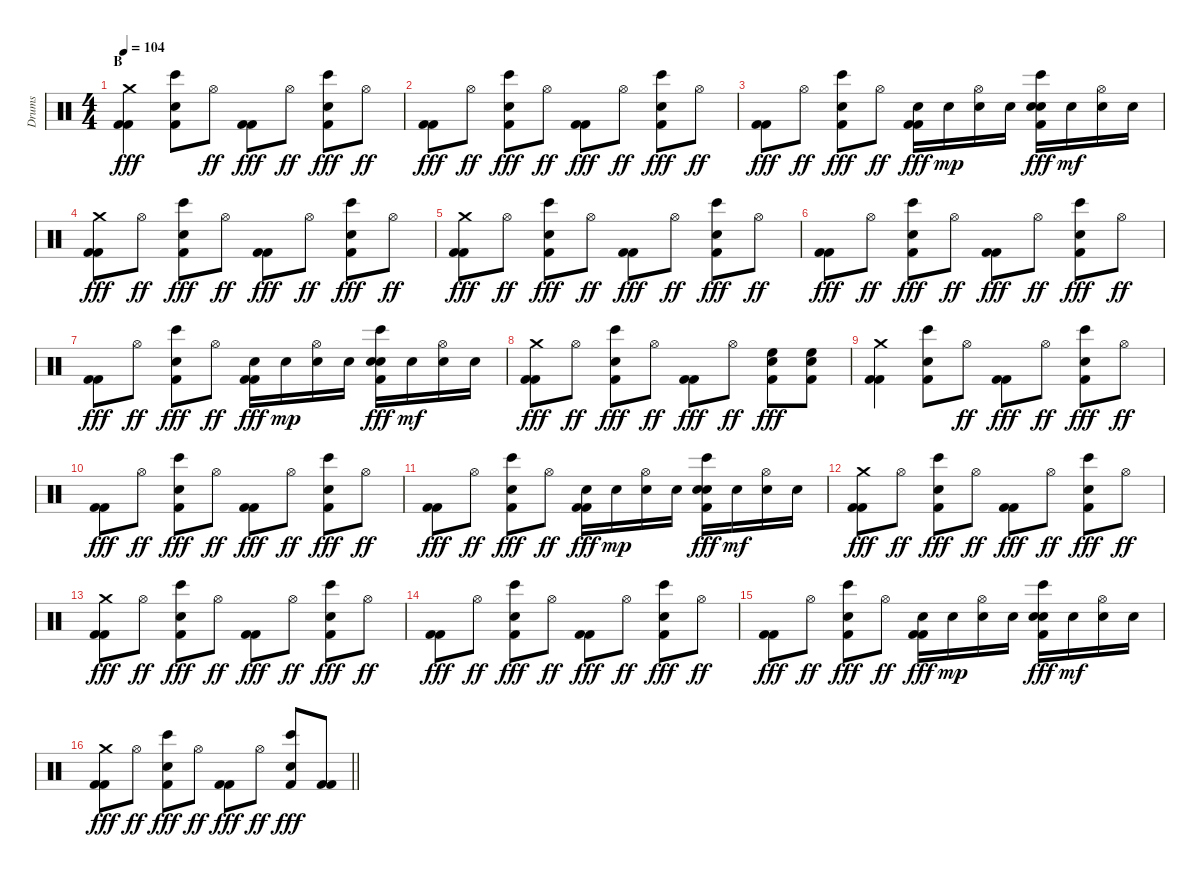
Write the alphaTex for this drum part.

\track ("Drums" "Drums") {instrument percussion}
\staff {score}
\articulation defaults
\ts (4 4)
\section ("" "B")
\tempo 104
\clef neutral
\ks c
("Crash medium (hit)" "Kick (hit) 2" "Kick (hit) 2").4{dy fff} ("Bongo High (hit)" "Snare (hit) 2" "Kick (hit) 2").8 "Hi-Hat (open)".8{dy ff} ("Kick (hit) 2" "Kick (hit) 2").8{dy fff} "Hi-Hat (open)".8{dy ff} ("Bongo High (hit)" "Snare (hit) 2" "Kick (hit) 2").8{dy fff} "Hi-Hat (open)".8{dy ff} |
("Kick (hit) 2" "Kick (hit) 2").8{dy fff} "Hi-Hat (open)".8{dy ff} ("Bongo High (hit)" "Snare (hit) 2" "Kick (hit) 2").8{dy fff} "Hi-Hat (open)".8{dy ff} ("Kick (hit) 2" "Kick (hit) 2").8{dy fff} "Hi-Hat (open)".8{dy ff} ("Bongo High (hit)" "Snare (hit) 2" "Kick (hit) 2").8{dy fff} "Hi-Hat (open)".8{dy ff} |
("Kick (hit) 2" "Kick (hit) 2").8{dy fff} "Hi-Hat (open)".8{dy ff} ("Bongo High (hit)" "Snare (hit) 2" "Kick (hit) 2").8{dy fff} "Hi-Hat (open)".8{dy ff} ("Electric Snare (hit)" "Kick (hit) 2" "Kick (hit) 2").16{dy fff} "Electric Snare (hit)".16{dy mp} ("Hi-Hat (open)" "Electric Snare (hit)").16 "Electric Snare (hit)".16 ("Electric Snare (hit)" "Bongo High (hit)" "Snare (hit) 2" "Kick (hit) 2").16{dy fff} "Electric Snare (hit)".16{dy mf} ("Hi-Hat (open)" "Electric Snare (hit)").16 "Electric Snare (hit)".16 |
("Crash medium (hit)" "Kick (hit) 2" "Kick (hit) 2").8{dy fff} "Hi-Hat (open)".8{dy ff} ("Bongo High (hit)" "Snare (hit) 2" "Kick (hit) 2").8{dy fff} "Hi-Hat (open)".8{dy ff} ("Kick (hit) 2" "Kick (hit) 2").8{dy fff} "Hi-Hat (open)".8{dy ff} ("Bongo High (hit)" "Snare (hit) 2" "Kick (hit) 2").8{dy fff} "Hi-Hat (open)".8{dy ff} |
("Crash medium (hit)" "Kick (hit) 2" "Kick (hit) 2").8{dy fff} "Hi-Hat (open)".8{dy ff} ("Bongo High (hit)" "Snare (hit) 2" "Kick (hit) 2").8{dy fff} "Hi-Hat (open)".8{dy ff} ("Kick (hit) 2" "Kick (hit) 2").8{dy fff} "Hi-Hat (open)".8{dy ff} ("Bongo High (hit)" "Snare (hit) 2" "Kick (hit) 2").8{dy fff} "Hi-Hat (open)".8{dy ff} |
("Kick (hit) 2" "Kick (hit) 2").8{dy fff} "Hi-Hat (open)".8{dy ff} ("Bongo High (hit)" "Snare (hit) 2" "Kick (hit) 2").8{dy fff} "Hi-Hat (open)".8{dy ff} ("Kick (hit) 2" "Kick (hit) 2").8{dy fff} "Hi-Hat (open)".8{dy ff} ("Bongo High (hit)" "Snare (hit) 2" "Kick (hit) 2").8{dy fff} "Hi-Hat (open)".8{dy ff} |
("Kick (hit) 2" "Kick (hit) 2").8{dy fff} "Hi-Hat (open)".8{dy ff} ("Bongo High (hit)" "Snare (hit) 2" "Kick (hit) 2").8{dy fff} "Hi-Hat (open)".8{dy ff} ("Electric Snare (hit)" "Kick (hit) 2" "Kick (hit) 2").16{dy fff} "Electric Snare (hit)".16{dy mp} ("Hi-Hat (open)" "Electric Snare (hit)").16 "Electric Snare (hit)".16 ("Electric Snare (hit)" "Bongo High (hit)" "Snare (hit) 2" "Kick (hit) 2").16{dy fff} "Electric Snare (hit)".16{dy mf} ("Hi-Hat (open)" "Electric Snare (hit)").16 "Electric Snare (hit)".16 |
("Crash medium (hit)" "Kick (hit) 2" "Kick (hit) 2").8{dy fff} "Hi-Hat (open)".8{dy ff} ("Bongo High (hit)" "Snare (hit) 2" "Kick (hit) 2").8{dy fff} "Hi-Hat (open)".8{dy ff} ("Kick (hit) 2" "Kick (hit) 2").8{dy fff} "Hi-Hat (open)".8{dy ff} ("High Floor Tom (hit)" "Snare (hit) 2" "Kick (hit) 2").8{dy fff} ("High Floor Tom (hit)" "Snare (hit) 2" "Kick (hit) 2").8 |
("Crash medium (hit)" "Kick (hit) 2" "Kick (hit) 2").4 ("Bongo High (hit)" "Snare (hit) 2" "Kick (hit) 2").8 "Hi-Hat (open)".8{dy ff} ("Kick (hit) 2" "Kick (hit) 2").8{dy fff} "Hi-Hat (open)".8{dy ff} ("Bongo High (hit)" "Snare (hit) 2" "Kick (hit) 2").8{dy fff} "Hi-Hat (open)".8{dy ff} |
("Kick (hit) 2" "Kick (hit) 2").8{dy fff} "Hi-Hat (open)".8{dy ff} ("Bongo High (hit)" "Snare (hit) 2" "Kick (hit) 2").8{dy fff} "Hi-Hat (open)".8{dy ff} ("Kick (hit) 2" "Kick (hit) 2").8{dy fff} "Hi-Hat (open)".8{dy ff} ("Bongo High (hit)" "Snare (hit) 2" "Kick (hit) 2").8{dy fff} "Hi-Hat (open)".8{dy ff} |
("Kick (hit) 2" "Kick (hit) 2").8{dy fff} "Hi-Hat (open)".8{dy ff} ("Bongo High (hit)" "Snare (hit) 2" "Kick (hit) 2").8{dy fff} "Hi-Hat (open)".8{dy ff} ("Electric Snare (hit)" "Kick (hit) 2" "Kick (hit) 2").16{dy fff} "Electric Snare (hit)".16{dy mp} ("Hi-Hat (open)" "Electric Snare (hit)").16 "Electric Snare (hit)".16 ("Electric Snare (hit)" "Bongo High (hit)" "Snare (hit) 2" "Kick (hit) 2").16{dy fff} "Electric Snare (hit)".16{dy mf} ("Hi-Hat (open)" "Electric Snare (hit)").16 "Electric Snare (hit)".16 |
("Crash medium (hit)" "Kick (hit) 2" "Kick (hit) 2").8{dy fff} "Hi-Hat (open)".8{dy ff} ("Bongo High (hit)" "Snare (hit) 2" "Kick (hit) 2").8{dy fff} "Hi-Hat (open)".8{dy ff} ("Kick (hit) 2" "Kick (hit) 2").8{dy fff} "Hi-Hat (open)".8{dy ff} ("Bongo High (hit)" "Snare (hit) 2" "Kick (hit) 2").8{dy fff} "Hi-Hat (open)".8{dy ff} |
("Crash medium (hit)" "Kick (hit) 2" "Kick (hit) 2").8{dy fff} "Hi-Hat (open)".8{dy ff} ("Bongo High (hit)" "Snare (hit) 2" "Kick (hit) 2").8{dy fff} "Hi-Hat (open)".8{dy ff} ("Kick (hit) 2" "Kick (hit) 2").8{dy fff} "Hi-Hat (open)".8{dy ff} ("Bongo High (hit)" "Snare (hit) 2" "Kick (hit) 2").8{dy fff} "Hi-Hat (open)".8{dy ff} |
("Kick (hit) 2" "Kick (hit) 2").8{dy fff} "Hi-Hat (open)".8{dy ff} ("Bongo High (hit)" "Snare (hit) 2" "Kick (hit) 2").8{dy fff} "Hi-Hat (open)".8{dy ff} ("Kick (hit) 2" "Kick (hit) 2").8{dy fff} "Hi-Hat (open)".8{dy ff} ("Bongo High (hit)" "Snare (hit) 2" "Kick (hit) 2").8{dy fff} "Hi-Hat (open)".8{dy ff} |
("Kick (hit) 2" "Kick (hit) 2").8{dy fff} "Hi-Hat (open)".8{dy ff} ("Bongo High (hit)" "Snare (hit) 2" "Kick (hit) 2").8{dy fff} "Hi-Hat (open)".8{dy ff} ("Electric Snare (hit)" "Kick (hit) 2" "Kick (hit) 2").16{dy fff} "Electric Snare (hit)".16{dy mp} ("Hi-Hat (open)" "Electric Snare (hit)").16 "Electric Snare (hit)".16 ("Electric Snare (hit)" "Bongo High (hit)" "Snare (hit) 2" "Kick (hit) 2").16{dy fff} "Electric Snare (hit)".16{dy mf} ("Hi-Hat (open)" "Electric Snare (hit)").16 "Electric Snare (hit)".16 |
\barLineRight lightlight
("Crash medium (hit)" "Kick (hit) 2" "Kick (hit) 2").8{dy fff} "Hi-Hat (open)".8{dy ff} ("Bongo High (hit)" "Snare (hit) 2" "Kick (hit) 2").8{dy fff} "Hi-Hat (open)".8{dy ff} ("Kick (hit) 2" "Kick (hit) 2").8{dy fff} "Hi-Hat (open)".8{dy ff} ("Bongo High (hit)" "Snare (hit) 2" "Kick (hit) 2").8{dy fff} ("Kick (hit) 2" "Kick (hit) 2").8
